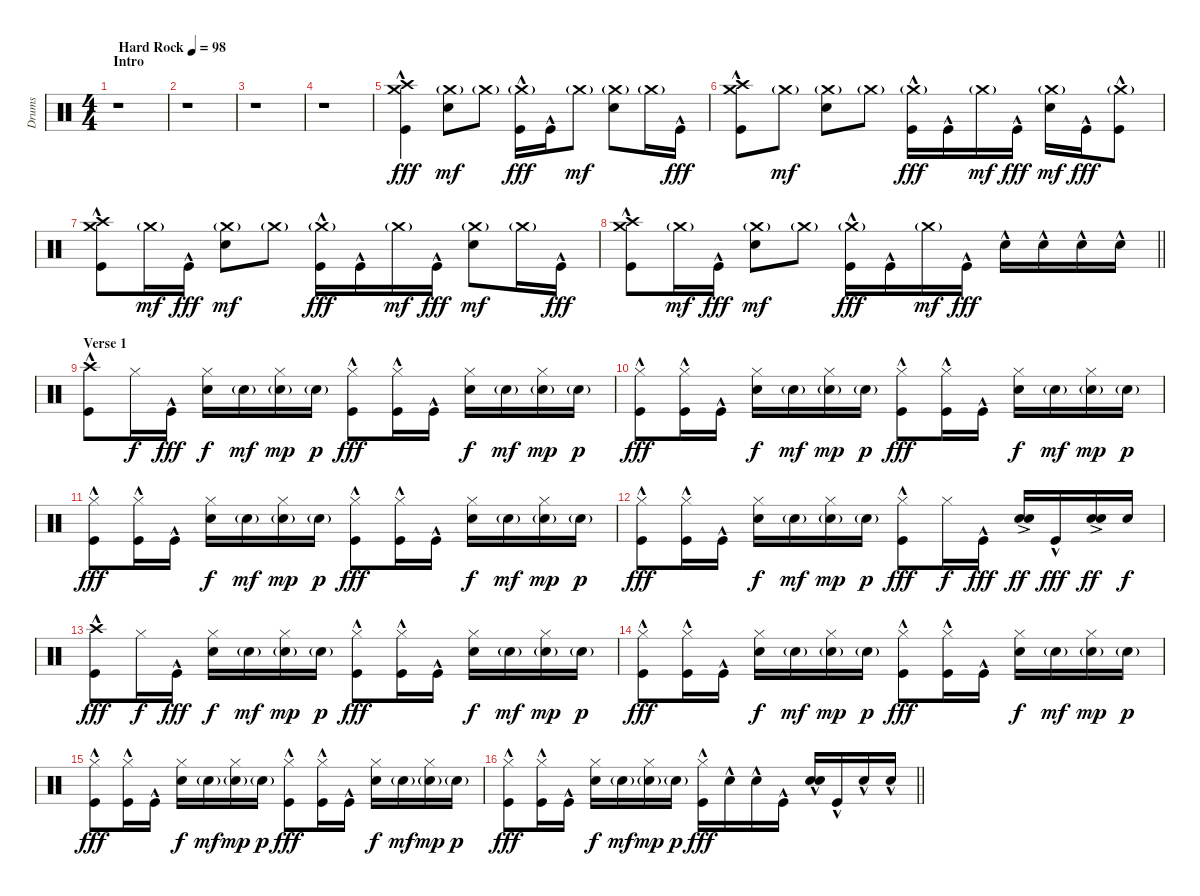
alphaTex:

\track ("Drums" "Drums") {instrument percussion}
\staff {score}
\articulation defaults
\ts (4 4)
\section ("" "Intro")
\tempo (98 "Hard Rock")
\clef neutral
\ks c
r.1{dy fff} |
r.1 |
r.1 |
r.1 |
("Crash medium (hit)" "Crash high (hit)" "Kick (hit)"{hac}).4 ("Crash medium (hit)"{g} "Snare (hit) 2").8{dy mf} "Crash medium (hit)"{g}.8 ("Crash medium (hit)"{g} "Kick (hit)"{hac}).16{dy fff} "Kick (hit)"{hac}.16 "Crash medium (hit)"{g}.8{dy mf} ("Crash medium (hit)"{g} "Snare (hit) 2").8 "Crash medium (hit)"{g}.16 "Kick (hit)"{hac}.16{dy fff} |
("Crash medium (hit)" "Crash high (hit)" "Kick (hit)"{hac}).8 "Crash medium (hit)"{g}.8{dy mf} ("Crash medium (hit)"{g} "Snare (hit) 2").8 "Crash medium (hit)"{g}.8 ("Crash medium (hit)"{g} "Kick (hit)"{hac}).16{dy fff} "Kick (hit)"{hac}.16 "Crash medium (hit)"{g}.16{dy mf} "Kick (hit)"{hac}.16{dy fff} ("Crash medium (hit)"{g} "Snare (hit) 2").16{dy mf} "Kick (hit)"{hac}.16{dy fff} ("Crash medium (hit)"{g} "Kick (hit)"{hac}).8 |
("Crash medium (hit)" "Crash high (hit)" "Kick (hit)"{hac}).8 "Crash medium (hit)"{g}.16{dy mf} "Kick (hit)"{hac}.16{dy fff} ("Crash medium (hit)"{g} "Snare (hit) 2").8{dy mf} "Crash medium (hit)"{g}.8 ("Crash medium (hit)"{g} "Kick (hit)"{hac}).16{dy fff} "Kick (hit)"{hac}.16 "Crash medium (hit)"{g}.16{dy mf} "Kick (hit)"{hac}.16{dy fff} ("Crash medium (hit)"{g} "Snare (hit) 2").8{dy mf} "Crash medium (hit)"{g}.16 "Kick (hit)"{hac}.16{dy fff} |
\barLineRight lightlight
("Crash medium (hit)" "Crash high (hit)" "Kick (hit)"{hac}).8 "Crash medium (hit)"{g}.16{dy mf} "Kick (hit)"{hac}.16{dy fff} ("Crash medium (hit)"{g} "Snare (hit) 2").8{dy mf} "Crash medium (hit)"{g}.8 ("Crash medium (hit)"{g} "Kick (hit)"{hac}).16{dy fff} "Kick (hit)"{hac}.16 "Crash medium (hit)"{g}.16{dy mf} "Kick (hit)"{hac}.16{dy fff} "Snare (hit) 2"{hac}.16 "Snare (hit) 2"{hac}.16 "Snare (hit) 2"{hac}.16 "Snare (hit) 2"{hac}.16 |
\section ("" "Verse 1")
("Crash high (hit)" "Kick (hit)"{hac}).8 "Hi-Hat (closed)".16{dy f} "Kick (hit)"{hac}.16{dy fff} ("Hi-Hat (closed)" "Snare (hit) 2").16{dy f} "Snare (hit) 2"{g}.16{dy mf} ("Hi-Hat (closed)" "Snare (hit) 2"{g}).16{dy mp} "Snare (hit) 2"{g}.16{dy p} ("Hi-Hat (closed)" "Kick (hit)"{hac}).8{dy fff} ("Hi-Hat (closed)" "Kick (hit)"{hac}).16 "Kick (hit)"{hac}.16 ("Hi-Hat (closed)" "Snare (hit) 2").16{dy f} "Snare (hit) 2"{g}.16{dy mf} ("Hi-Hat (closed)" "Snare (hit) 2"{g}).16{dy mp} "Snare (hit) 2"{g}.16{dy p} |
("Hi-Hat (closed)" "Kick (hit)"{hac}).8{dy fff} ("Hi-Hat (closed)" "Kick (hit)"{hac}).16 "Kick (hit)"{hac}.16 ("Hi-Hat (closed)" "Snare (hit) 2").16{dy f} "Snare (hit) 2"{g}.16{dy mf} ("Hi-Hat (closed)" "Snare (hit) 2"{g}).16{dy mp} "Snare (hit) 2"{g}.16{dy p} ("Hi-Hat (closed)" "Kick (hit)"{hac}).8{dy fff} ("Hi-Hat (closed)" "Kick (hit)"{hac}).16 "Kick (hit)"{hac}.16 ("Hi-Hat (closed)" "Snare (hit) 2").16{dy f} "Snare (hit) 2"{g}.16{dy mf} ("Hi-Hat (closed)" "Snare (hit) 2"{g}).16{dy mp} "Snare (hit) 2"{g}.16{dy p} |
("Hi-Hat (closed)" "Kick (hit)"{hac}).8{dy fff} ("Hi-Hat (closed)" "Kick (hit)"{hac}).16 "Kick (hit)"{hac}.16 ("Hi-Hat (closed)" "Snare (hit) 2").16{dy f} "Snare (hit) 2"{g}.16{dy mf} ("Hi-Hat (closed)" "Snare (hit) 2"{g}).16{dy mp} "Snare (hit) 2"{g}.16{dy p} ("Hi-Hat (closed)" "Kick (hit)"{hac}).8{dy fff} ("Hi-Hat (closed)" "Kick (hit)"{hac}).16 "Kick (hit)"{hac}.16 ("Hi-Hat (closed)" "Snare (hit) 2").16{dy f} "Snare (hit) 2"{g}.16{dy mf} ("Hi-Hat (closed)" "Snare (hit) 2"{g}).16{dy mp} "Snare (hit) 2"{g}.16{dy p} |
("Hi-Hat (closed)" "Kick (hit)"{hac}).8{dy fff} ("Hi-Hat (closed)" "Kick (hit)"{hac}).16 "Kick (hit)"{hac}.16 ("Hi-Hat (closed)" "Snare (hit) 2").16{dy f} "Snare (hit) 2"{g}.16{dy mf} ("Hi-Hat (closed)" "Snare (hit) 2"{g}).16{dy mp} "Snare (hit) 2"{g}.16{dy p} ("Hi-Hat (closed)" "Kick (hit)"{hac}).8{dy fff} "Hi-Hat (closed)".16{dy f} "Kick (hit)"{hac}.16{dy fff} ("Snare (hit) 2"{ac} "Snare (hit) 2"{ac}).16{bd 120 dy ff} "Kick (hit)"{hac}.16{dy fff} ("Snare (hit) 2"{ac} "Snare (hit) 2"{ac}).16{bu 120 dy ff} "Snare (hit) 2".16{dy f} |
("Crash high (hit)" "Kick (hit)"{hac}).8{dy fff} "Hi-Hat (closed)".16{dy f} "Kick (hit)"{hac}.16{dy fff} ("Hi-Hat (closed)" "Snare (hit) 2").16{dy f} "Snare (hit) 2"{g}.16{dy mf} ("Hi-Hat (closed)" "Snare (hit) 2"{g}).16{dy mp} "Snare (hit) 2"{g}.16{dy p} ("Hi-Hat (closed)" "Kick (hit)"{hac}).8{dy fff} ("Hi-Hat (closed)" "Kick (hit)"{hac}).16 "Kick (hit)"{hac}.16 ("Hi-Hat (closed)" "Snare (hit) 2").16{dy f} "Snare (hit) 2"{g}.16{dy mf} ("Hi-Hat (closed)" "Snare (hit) 2"{g}).16{dy mp} "Snare (hit) 2"{g}.16{dy p} |
("Hi-Hat (closed)" "Kick (hit)"{hac}).8{dy fff} ("Hi-Hat (closed)" "Kick (hit)"{hac}).16 "Kick (hit)"{hac}.16 ("Hi-Hat (closed)" "Snare (hit) 2").16{dy f} "Snare (hit) 2"{g}.16{dy mf} ("Hi-Hat (closed)" "Snare (hit) 2"{g}).16{dy mp} "Snare (hit) 2"{g}.16{dy p} ("Hi-Hat (closed)" "Kick (hit)"{hac}).8{dy fff} ("Hi-Hat (closed)" "Kick (hit)"{hac}).16 "Kick (hit)"{hac}.16 ("Hi-Hat (closed)" "Snare (hit) 2").16{dy f} "Snare (hit) 2"{g}.16{dy mf} ("Hi-Hat (closed)" "Snare (hit) 2"{g}).16{dy mp} "Snare (hit) 2"{g}.16{dy p} |
("Hi-Hat (closed)" "Kick (hit)"{hac}).8{dy fff} ("Hi-Hat (closed)" "Kick (hit)"{hac}).16 "Kick (hit)"{hac}.16 ("Hi-Hat (closed)" "Snare (hit) 2").16{dy f} "Snare (hit) 2"{g}.16{dy mf} ("Hi-Hat (closed)" "Snare (hit) 2"{g}).16{dy mp} "Snare (hit) 2"{g}.16{dy p} ("Hi-Hat (closed)" "Kick (hit)"{hac}).8{dy fff} ("Hi-Hat (closed)" "Kick (hit)"{hac}).16 "Kick (hit)"{hac}.16 ("Hi-Hat (closed)" "Snare (hit) 2").16{dy f} "Snare (hit) 2"{g}.16{dy mf} ("Hi-Hat (closed)" "Snare (hit) 2"{g}).16{dy mp} "Snare (hit) 2"{g}.16{dy p} |
\barLineRight lightlight
("Hi-Hat (closed)" "Kick (hit)"{hac}).8{dy fff} ("Hi-Hat (closed)" "Kick (hit)"{hac}).16 "Kick (hit)"{hac}.16 ("Hi-Hat (closed)" "Snare (hit) 2").16{dy f} "Snare (hit) 2"{g}.16{dy mf} ("Hi-Hat (closed)" "Snare (hit) 2"{g}).16{dy mp} "Snare (hit) 2"{g}.16{dy p} ("Hi-Hat (closed)" "Kick (hit)"{hac}).16{dy fff} "Snare (hit) 2"{hac}.16 "Snare (hit) 2"{hac}.16 "Kick (hit)"{hac}.16 ("Snare (hit) 2"{hac} "Snare (hit) 2"{hac}).16{bd 120} "Kick (hit)"{hac}.16 "Snare (hit) 2"{hac}.16 "Snare (hit) 2"{hac}.16
